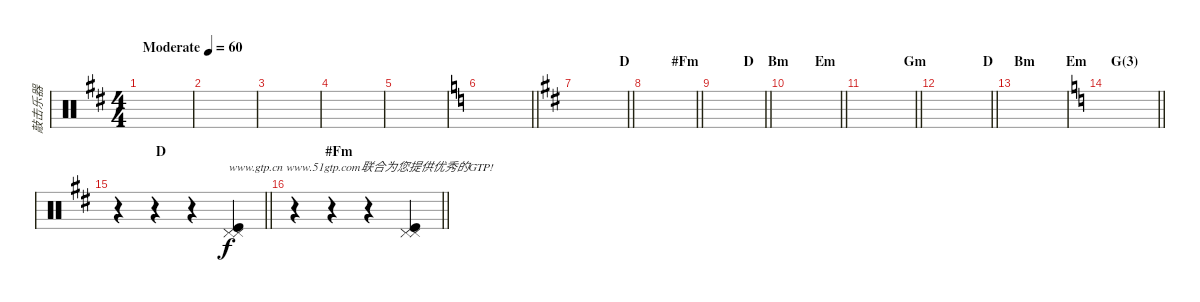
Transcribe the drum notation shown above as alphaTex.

\track ("敲击乐器" "敲击乐器") {instrument percussion}
\staff {score}
\articulation defaults
\ts (4 4)
\tempo (60 "Moderate")
\clef neutral
\ks d
|
|
|
|
|
\barLineRight lightlight
\ks c
|
\section ("" "            D")
\barLineRight lightlight
\ks d
|
\section ("" "       #Fm")
\barLineRight lightlight
|
\section ("" "        D    Bm")
\barLineRight lightlight
|
\section ("" "       Em")
\barLineRight lightlight
|
\section ("" "           Gm")
\barLineRight lightlight
|
\section ("" "            D      Bm")
\barLineRight lightlight
|
\section ("" "              Em       G(3)")
|
\barLineRight lightlight
\ks c
|
\section ("" "            D")
\barLineRight lightlight
\ks d
r.4 r.4 r.4 ("Pedal Hi-Hat (hit)" "Kick (hit)" "Pedal Hi-Hat (hit)").4{txt "www.gtp.cn www.51gtp.com联合为您提供优秀的GTP!"} |
\section ("" "          #Fm")
\barLineRight lightlight
r.4 r.4 r.4 ("Pedal Hi-Hat (hit)" "Kick (hit)" "Pedal Hi-Hat (hit)").4
